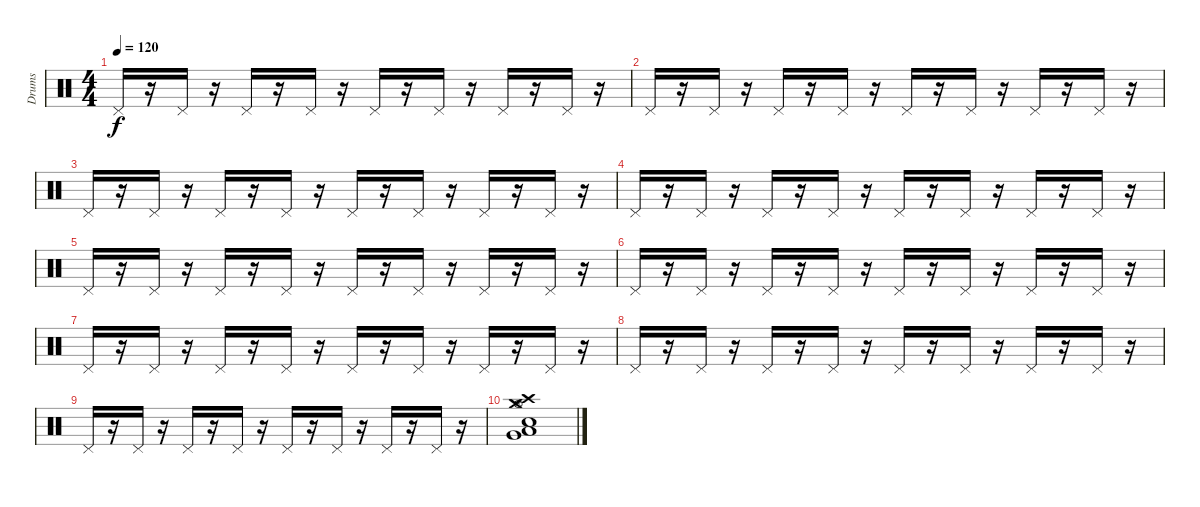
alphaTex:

\track ("Drums" "Drums") {instrument percussion}
\staff {score}
\articulation defaults
\ts (4 4)
\tempo 120
\clef neutral
\ks c "Pedal Hi-Hat (hit)".16{dy f}
r.16 "Pedal Hi-Hat (hit)".16 r.16 "Pedal Hi-Hat (hit)".16 r.16 "Pedal Hi-Hat (hit)".16 r.16 "Pedal Hi-Hat (hit)".16 r.16 "Pedal Hi-Hat (hit)".16 r.16 "Pedal Hi-Hat (hit)".16 r.16 "Pedal Hi-Hat (hit)".16 r.16 |
"Pedal Hi-Hat (hit)".16 r.16 "Pedal Hi-Hat (hit)".16 r.16 "Pedal Hi-Hat (hit)".16 r.16 "Pedal Hi-Hat (hit)".16 r.16 "Pedal Hi-Hat (hit)".16 r.16 "Pedal Hi-Hat (hit)".16 r.16 "Pedal Hi-Hat (hit)".16 r.16 "Pedal Hi-Hat (hit)".16 r.16 |
"Pedal Hi-Hat (hit)".16 r.16 "Pedal Hi-Hat (hit)".16 r.16 "Pedal Hi-Hat (hit)".16 r.16 "Pedal Hi-Hat (hit)".16 r.16 "Pedal Hi-Hat (hit)".16 r.16 "Pedal Hi-Hat (hit)".16 r.16 "Pedal Hi-Hat (hit)".16 r.16 "Pedal Hi-Hat (hit)".16 r.16 |
"Pedal Hi-Hat (hit)".16 r.16 "Pedal Hi-Hat (hit)".16 r.16 "Pedal Hi-Hat (hit)".16 r.16 "Pedal Hi-Hat (hit)".16 r.16 "Pedal Hi-Hat (hit)".16 r.16 "Pedal Hi-Hat (hit)".16 r.16 "Pedal Hi-Hat (hit)".16 r.16 "Pedal Hi-Hat (hit)".16 r.16 |
"Pedal Hi-Hat (hit)".16 r.16 "Pedal Hi-Hat (hit)".16 r.16 "Pedal Hi-Hat (hit)".16 r.16 "Pedal Hi-Hat (hit)".16 r.16 "Pedal Hi-Hat (hit)".16 r.16 "Pedal Hi-Hat (hit)".16 r.16 "Pedal Hi-Hat (hit)".16 r.16 "Pedal Hi-Hat (hit)".16 r.16 |
"Pedal Hi-Hat (hit)".16 r.16 "Pedal Hi-Hat (hit)".16 r.16 "Pedal Hi-Hat (hit)".16 r.16 "Pedal Hi-Hat (hit)".16 r.16 "Pedal Hi-Hat (hit)".16 r.16 "Pedal Hi-Hat (hit)".16 r.16 "Pedal Hi-Hat (hit)".16 r.16 "Pedal Hi-Hat (hit)".16 r.16 |
"Pedal Hi-Hat (hit)".16 r.16 "Pedal Hi-Hat (hit)".16 r.16 "Pedal Hi-Hat (hit)".16 r.16 "Pedal Hi-Hat (hit)".16 r.16 "Pedal Hi-Hat (hit)".16 r.16 "Pedal Hi-Hat (hit)".16 r.16 "Pedal Hi-Hat (hit)".16 r.16 "Pedal Hi-Hat (hit)".16 r.16 |
"Pedal Hi-Hat (hit)".16 r.16 "Pedal Hi-Hat (hit)".16 r.16 "Pedal Hi-Hat (hit)".16 r.16 "Pedal Hi-Hat (hit)".16 r.16 "Pedal Hi-Hat (hit)".16 r.16 "Pedal Hi-Hat (hit)".16 r.16 "Pedal Hi-Hat (hit)".16 r.16 "Pedal Hi-Hat (hit)".16 r.16 |
"Pedal Hi-Hat (hit)".16 r.16 "Pedal Hi-Hat (hit)".16 r.16 "Pedal Hi-Hat (hit)".16 r.16 "Pedal Hi-Hat (hit)".16 r.16 "Pedal Hi-Hat (hit)".16 r.16 "Pedal Hi-Hat (hit)".16 r.16 "Pedal Hi-Hat (hit)".16 r.16 "Pedal Hi-Hat (hit)".16 r.16 |
("Crash high (hit)" "Hi-Hat (open)" "Crash medium (hit)" "Electric Snare (hit)" "Very Low Tom (hit)" "Low Floor Tom (hit)").1
